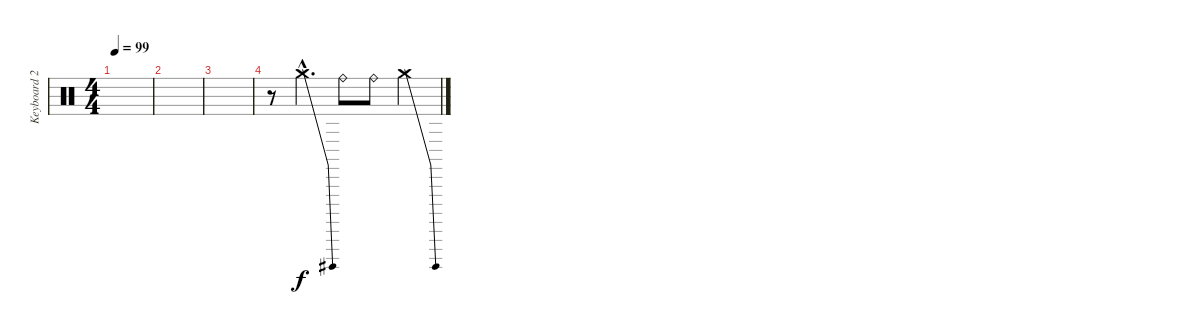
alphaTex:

\track ("Keyboard 2" "Keyboard 2") {instrument percussion}
\staff {score}
\articulation defaults
\ts (4 4)
\tempo 99
\clef neutral
\ks c
|
|
|
r.8 "Crash medium (hit)"{be (bend 0 0 60 12) hac}.4{d} "Ride (bell)".8 "Ride (bell)".8 "Crash medium (hit)"{be (bend 0 0 60 12)}.4
